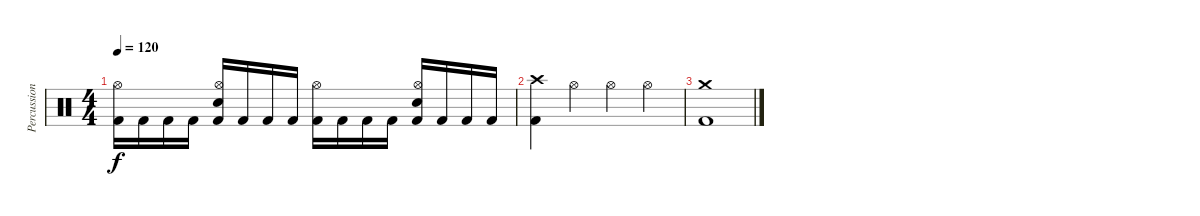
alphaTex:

\track ("Percussion" "Percussion") {instrument percussion}
\staff {score}
\articulation defaults
\ts (4 4)
\tempo 120
\clef neutral
\ks c
("Kick (hit) 2" "Hi-Hat (open)").16{dy f} "Kick (hit) 2".16 "Kick (hit) 2".16 "Kick (hit) 2".16 ("Kick (hit) 2" "Electric Snare (hit)" "Hi-Hat (open)").16 "Kick (hit) 2".16 "Kick (hit) 2".16 "Kick (hit) 2".16 ("Kick (hit) 2" "Hi-Hat (open)").16 "Kick (hit) 2".16 "Kick (hit) 2".16 "Kick (hit) 2".16 ("Kick (hit) 2" "Hi-Hat (open)" "Electric Snare (hit)").16 "Kick (hit) 2".16 "Kick (hit) 2".16 "Kick (hit) 2".16 |
("Crash high (hit)" "Kick (hit) 2").4 "Hi-Hat (open)".4 "Hi-Hat (open)".4 "Hi-Hat (open)".4 |
("Crash medium (hit)" "Kick (hit) 2").1
